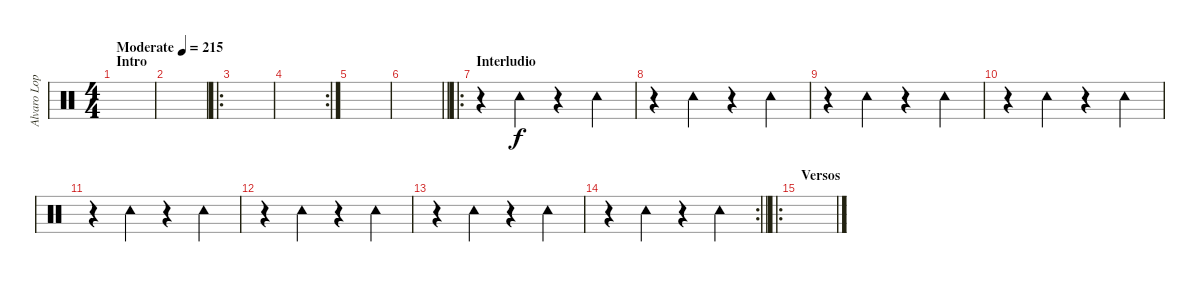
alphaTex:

\track ("Alvaro Lopez" "Alvaro Lop") {instrument percussion}
\staff {score}
\articulation defaults
\ts (4 4)
\section ("" "Intro")
\tempo (215 "Moderate")
\clef neutral
\ks c
|
|
\ro
|
\rc 2
|
|
\barLineRight lightlight
|
\ro
\section ("" "Interludio")
r.4 "Tambourine (hit)".4 r.4 "Tambourine (hit)".4 |
r.4 "Tambourine (hit)".4 r.4 "Tambourine (hit)".4 |
r.4 "Tambourine (hit)".4 r.4 "Tambourine (hit)".4 |
r.4 "Tambourine (hit)".4 r.4 "Tambourine (hit)".4 |
r.4 "Tambourine (hit)".4 r.4 "Tambourine (hit)".4 |
r.4 "Tambourine (hit)".4 r.4 "Tambourine (hit)".4 |
r.4 "Tambourine (hit)".4 r.4 "Tambourine (hit)".4 |
\rc 2
\barLineRight lightlight
r.4 "Tambourine (hit)".4 r.4 "Tambourine (hit)".4 |
\ro
\section ("" "Versos")
